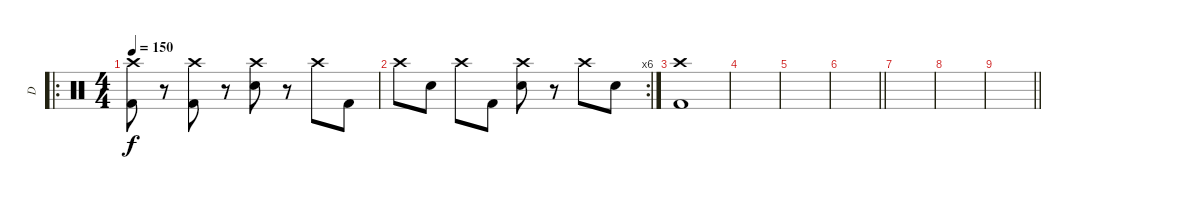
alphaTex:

\track ("D" "D") {instrument percussion}
\staff {score}
\articulation defaults
\ro
\ts (4 4)
\tempo 150
\clef neutral
\ks c
("Crash high (hit)" "Kick (hit) 2").8{dy f} r.8 ("Crash high (hit)" "Kick (hit) 2").8 r.8 ("Crash high (hit)" "Snare (hit) 2").8 r.8 "Crash high (hit)".8 "Kick (hit) 2".8 |
\rc 6 "Crash high (hit)".8 "Snare (hit) 2".8 "Crash high (hit)".8 "Kick (hit) 2".8
("Crash high (hit)" "Snare (hit) 2").8 r.8 "Crash high (hit)".8 "Snare (hit) 2".8 |
("Crash high (hit)" "Kick (hit) 2").1 |
|
|
\barLineRight lightlight
|
|
|
\barLineRight lightlight
